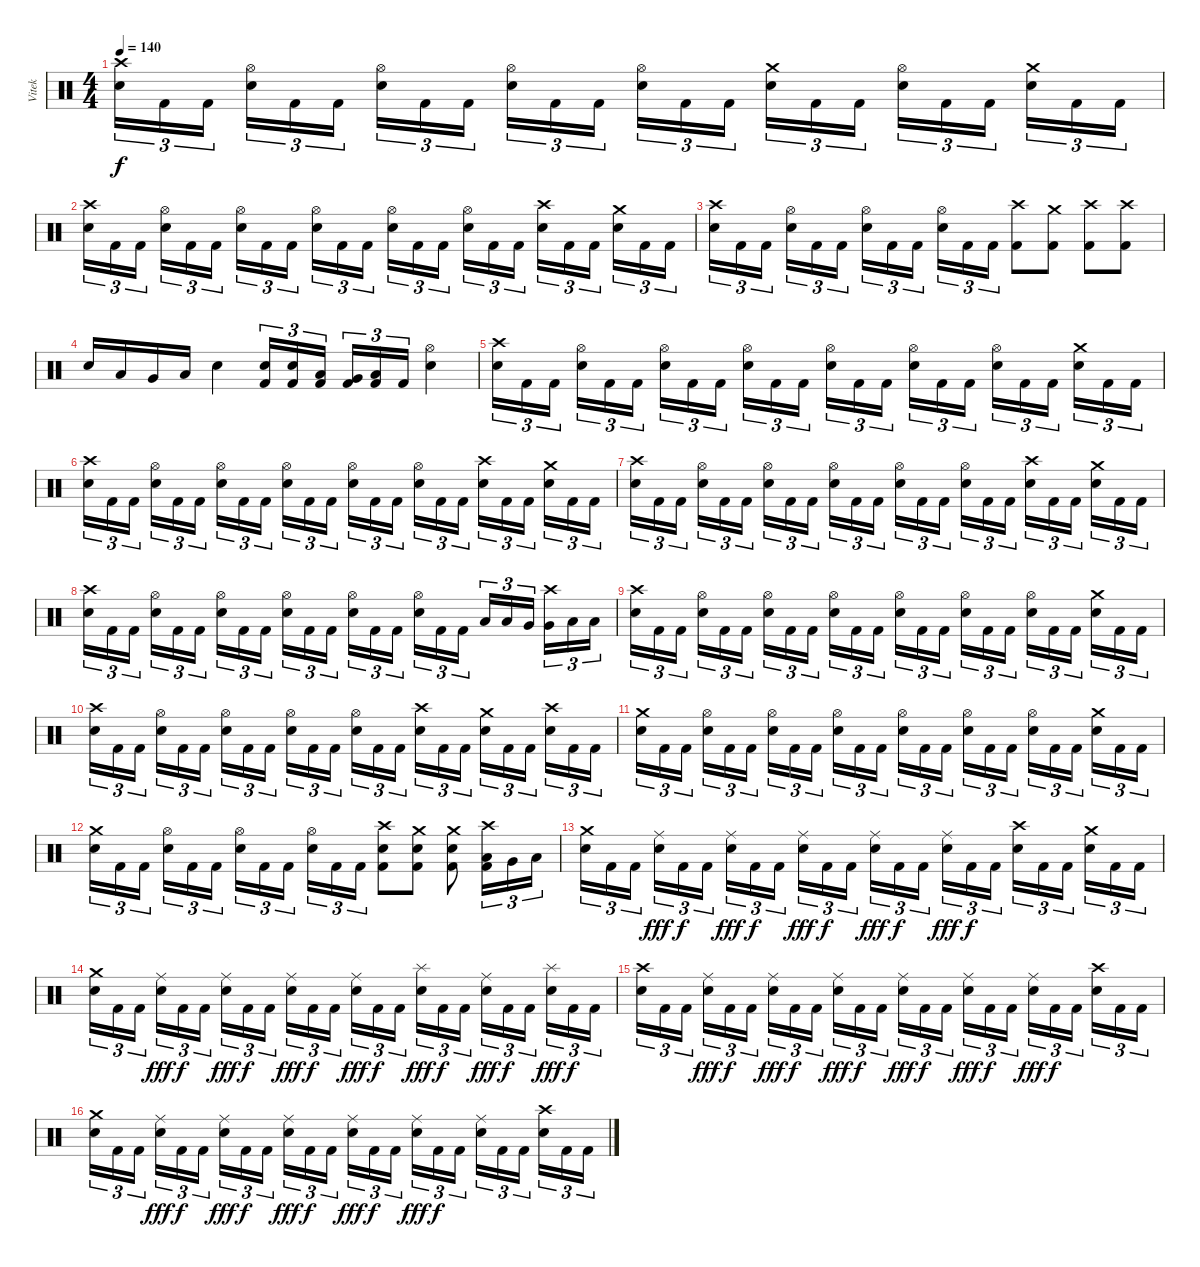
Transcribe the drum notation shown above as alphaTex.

\track ("Vitek" "Vitek") {instrument percussion}
\staff {score}
\articulation defaults
\ts (4 4)
\tempo 140
\clef neutral
\ks c
("Crash high (hit)" "Electric Snare (hit)").16{tu (3 2) dy f} "Kick (hit) 2".16{tu (3 2)} "Kick (hit) 2".16{tu (3 2)} ("Hi-Hat (open)" "Electric Snare (hit)").16{tu (3 2)} "Kick (hit) 2".16{tu (3 2)} "Kick (hit) 2".16{tu (3 2)} ("Hi-Hat (open)" "Electric Snare (hit)").16{tu (3 2)} "Kick (hit) 2".16{tu (3 2)} "Kick (hit) 2".16{tu (3 2)} ("Hi-Hat (open)" "Electric Snare (hit)").16{tu (3 2)} "Kick (hit) 2".16{tu (3 2)} "Kick (hit) 2".16{tu (3 2)} ("Hi-Hat (open)" "Electric Snare (hit)").16{tu (3 2)} "Kick (hit) 2".16{tu (3 2)} "Kick (hit) 2".16{tu (3 2)} ("Crash medium (hit)" "Electric Snare (hit)").16{tu (3 2)} "Kick (hit) 2".16{tu (3 2)} "Kick (hit) 2".16{tu (3 2)} ("Hi-Hat (open)" "Electric Snare (hit)").16{tu (3 2)} "Kick (hit) 2".16{tu (3 2)} "Kick (hit) 2".16{tu (3 2)} ("Crash medium (hit)" "Electric Snare (hit)").16{tu (3 2)} "Kick (hit) 2".16{tu (3 2)} "Kick (hit) 2".16{tu (3 2)} |
("Crash high (hit)" "Electric Snare (hit)").16{tu (3 2)} "Kick (hit) 2".16{tu (3 2)} "Kick (hit) 2".16{tu (3 2)} ("Hi-Hat (open)" "Electric Snare (hit)").16{tu (3 2)} "Kick (hit) 2".16{tu (3 2)} "Kick (hit) 2".16{tu (3 2)} ("Hi-Hat (open)" "Electric Snare (hit)").16{tu (3 2)} "Kick (hit) 2".16{tu (3 2)} "Kick (hit) 2".16{tu (3 2)} ("Hi-Hat (open)" "Electric Snare (hit)").16{tu (3 2)} "Kick (hit) 2".16{tu (3 2)} "Kick (hit) 2".16{tu (3 2)} ("Hi-Hat (open)" "Electric Snare (hit)").16{tu (3 2)} "Kick (hit) 2".16{tu (3 2)} "Kick (hit) 2".16{tu (3 2)} ("Hi-Hat (open)" "Electric Snare (hit)").16{tu (3 2)} "Kick (hit) 2".16{tu (3 2)} "Kick (hit) 2".16{tu (3 2)} ("Crash high (hit)" "Electric Snare (hit)").16{tu (3 2)} "Kick (hit) 2".16{tu (3 2)} "Kick (hit) 2".16{tu (3 2)} ("Crash medium (hit)" "Electric Snare (hit)").16{tu (3 2)} "Kick (hit) 2".16{tu (3 2)} "Kick (hit) 2".16{tu (3 2)} |
("Crash high (hit)" "Electric Snare (hit)").16{tu (3 2)} "Kick (hit) 2".16{tu (3 2)} "Kick (hit) 2".16{tu (3 2)} ("Hi-Hat (open)" "Electric Snare (hit)").16{tu (3 2)} "Kick (hit) 2".16{tu (3 2)} "Kick (hit) 2".16{tu (3 2)} ("Hi-Hat (open)" "Electric Snare (hit)").16{tu (3 2)} "Kick (hit) 2".16{tu (3 2)} "Kick (hit) 2".16{tu (3 2)} ("Hi-Hat (open)" "Electric Snare (hit)").16{tu (3 2)} "Kick (hit) 2".16{tu (3 2)} "Kick (hit) 2".16{tu (3 2)} ("Crash high (hit)" "Kick (hit) 2").8 ("Crash medium (hit)" "Kick (hit) 2").8 ("Crash high (hit)" "Kick (hit) 2").8 ("Crash high (hit)" "Kick (hit) 2").8 |
"Electric Snare (hit)".16 "Low Tom (hit)".16 "Very Low Tom (hit)".16 "Low Floor Tom (hit)".16 "Electric Snare (hit)".4 ("Electric Snare (hit)" "Kick (hit) 2").16{tu (3 2)} ("Electric Snare (hit)" "Kick (hit) 2").16{tu (3 2)} ("Low Tom (hit)" "Kick (hit) 2").16{tu (3 2)} ("Very Low Tom (hit)" "Kick (hit) 2").16{tu (3 2)} ("Low Floor Tom (hit)" "Kick (hit) 2").16{tu (3 2)} "Kick (hit) 2".16{tu (3 2)} ("Hi-Hat (open)" "Electric Snare (hit)").4 |
("Crash high (hit)" "Electric Snare (hit)").16{tu (3 2)} "Kick (hit) 2".16{tu (3 2)} "Kick (hit) 2".16{tu (3 2)} ("Hi-Hat (open)" "Electric Snare (hit)").16{tu (3 2)} "Kick (hit) 2".16{tu (3 2)} "Kick (hit) 2".16{tu (3 2)} ("Hi-Hat (open)" "Electric Snare (hit)").16{tu (3 2)} "Kick (hit) 2".16{tu (3 2)} "Kick (hit) 2".16{tu (3 2)} ("Hi-Hat (open)" "Electric Snare (hit)").16{tu (3 2)} "Kick (hit) 2".16{tu (3 2)} "Kick (hit) 2".16{tu (3 2)} ("Hi-Hat (open)" "Electric Snare (hit)").16{tu (3 2)} "Kick (hit) 2".16{tu (3 2)} "Kick (hit) 2".16{tu (3 2)} ("Hi-Hat (open)" "Electric Snare (hit)").16{tu (3 2)} "Kick (hit) 2".16{tu (3 2)} "Kick (hit) 2".16{tu (3 2)} ("Hi-Hat (open)" "Electric Snare (hit)").16{tu (3 2)} "Kick (hit) 2".16{tu (3 2)} "Kick (hit) 2".16{tu (3 2)} ("Crash medium (hit)" "Electric Snare (hit)").16{tu (3 2)} "Kick (hit) 2".16{tu (3 2)} "Kick (hit) 2".16{tu (3 2)} |
("Crash high (hit)" "Electric Snare (hit)").16{tu (3 2)} "Kick (hit) 2".16{tu (3 2)} "Kick (hit) 2".16{tu (3 2)} ("Hi-Hat (open)" "Electric Snare (hit)").16{tu (3 2)} "Kick (hit) 2".16{tu (3 2)} "Kick (hit) 2".16{tu (3 2)} ("Hi-Hat (open)" "Electric Snare (hit)").16{tu (3 2)} "Kick (hit) 2".16{tu (3 2)} "Kick (hit) 2".16{tu (3 2)} ("Hi-Hat (open)" "Electric Snare (hit)").16{tu (3 2)} "Kick (hit) 2".16{tu (3 2)} "Kick (hit) 2".16{tu (3 2)} ("Hi-Hat (open)" "Electric Snare (hit)").16{tu (3 2)} "Kick (hit) 2".16{tu (3 2)} "Kick (hit) 2".16{tu (3 2)} ("Hi-Hat (open)" "Electric Snare (hit)").16{tu (3 2)} "Kick (hit) 2".16{tu (3 2)} "Kick (hit) 2".16{tu (3 2)} ("Crash high (hit)" "Electric Snare (hit)").16{tu (3 2)} "Kick (hit) 2".16{tu (3 2)} "Kick (hit) 2".16{tu (3 2)} ("Crash medium (hit)" "Electric Snare (hit)").16{tu (3 2)} "Kick (hit) 2".16{tu (3 2)} "Kick (hit) 2".16{tu (3 2)} |
("Crash high (hit)" "Electric Snare (hit)").16{tu (3 2)} "Kick (hit) 2".16{tu (3 2)} "Kick (hit) 2".16{tu (3 2)} ("Hi-Hat (open)" "Electric Snare (hit)").16{tu (3 2)} "Kick (hit) 2".16{tu (3 2)} "Kick (hit) 2".16{tu (3 2)} ("Hi-Hat (open)" "Electric Snare (hit)").16{tu (3 2)} "Kick (hit) 2".16{tu (3 2)} "Kick (hit) 2".16{tu (3 2)} ("Hi-Hat (open)" "Electric Snare (hit)").16{tu (3 2)} "Kick (hit) 2".16{tu (3 2)} "Kick (hit) 2".16{tu (3 2)} ("Hi-Hat (open)" "Electric Snare (hit)").16{tu (3 2)} "Kick (hit) 2".16{tu (3 2)} "Kick (hit) 2".16{tu (3 2)} ("Hi-Hat (open)" "Electric Snare (hit)").16{tu (3 2)} "Kick (hit) 2".16{tu (3 2)} "Kick (hit) 2".16{tu (3 2)} ("Crash high (hit)" "Electric Snare (hit)").16{tu (3 2)} "Kick (hit) 2".16{tu (3 2)} "Kick (hit) 2".16{tu (3 2)} ("Crash medium (hit)" "Electric Snare (hit)").16{tu (3 2)} "Kick (hit) 2".16{tu (3 2)} "Kick (hit) 2".16{tu (3 2)} |
("Crash high (hit)" "Electric Snare (hit)").16{tu (3 2)} "Kick (hit) 2".16{tu (3 2)} "Kick (hit) 2".16{tu (3 2)} ("Hi-Hat (open)" "Electric Snare (hit)").16{tu (3 2)} "Kick (hit) 2".16{tu (3 2)} "Kick (hit) 2".16{tu (3 2)} ("Hi-Hat (open)" "Electric Snare (hit)").16{tu (3 2)} "Kick (hit) 2".16{tu (3 2)} "Kick (hit) 2".16{tu (3 2)} ("Hi-Hat (open)" "Electric Snare (hit)").16{tu (3 2)} "Kick (hit) 2".16{tu (3 2)} "Kick (hit) 2".16{tu (3 2)} ("Hi-Hat (open)" "Electric Snare (hit)").16{tu (3 2)} "Kick (hit) 2".16{tu (3 2)} "Kick (hit) 2".16{tu (3 2)} ("Hi-Hat (open)" "Electric Snare (hit)").16{tu (3 2)} "Kick (hit) 2".16{tu (3 2)} "Kick (hit) 2".16{tu (3 2)} "Low Tom (hit)".16{tu (3 2)} "Low Tom (hit)".16{tu (3 2)} "Very Low Tom (hit)".16{tu (3 2)} ("Crash high (hit)" "Very Low Tom (hit)").16{tu (3 2)} "Low Floor Tom (hit)".16{tu (3 2)} "Low Floor Tom (hit)".16{tu (3 2)} |
("Crash high (hit)" "Electric Snare (hit)").16{tu (3 2)} "Kick (hit) 2".16{tu (3 2)} "Kick (hit) 2".16{tu (3 2)} ("Hi-Hat (open)" "Electric Snare (hit)").16{tu (3 2)} "Kick (hit) 2".16{tu (3 2)} "Kick (hit) 2".16{tu (3 2)} ("Hi-Hat (open)" "Electric Snare (hit)").16{tu (3 2)} "Kick (hit) 2".16{tu (3 2)} "Kick (hit) 2".16{tu (3 2)} ("Hi-Hat (open)" "Electric Snare (hit)").16{tu (3 2)} "Kick (hit) 2".16{tu (3 2)} "Kick (hit) 2".16{tu (3 2)} ("Hi-Hat (open)" "Electric Snare (hit)").16{tu (3 2)} "Kick (hit) 2".16{tu (3 2)} "Kick (hit) 2".16{tu (3 2)} ("Hi-Hat (open)" "Electric Snare (hit)").16{tu (3 2)} "Kick (hit) 2".16{tu (3 2)} "Kick (hit) 2".16{tu (3 2)} ("Hi-Hat (open)" "Electric Snare (hit)").16{tu (3 2)} "Kick (hit) 2".16{tu (3 2)} "Kick (hit) 2".16{tu (3 2)} ("Crash medium (hit)" "Electric Snare (hit)").16{tu (3 2)} "Kick (hit) 2".16{tu (3 2)} "Kick (hit) 2".16{tu (3 2)} |
("Crash high (hit)" "Electric Snare (hit)").16{tu (3 2)} "Kick (hit) 2".16{tu (3 2)} "Kick (hit) 2".16{tu (3 2)} ("Hi-Hat (open)" "Electric Snare (hit)").16{tu (3 2)} "Kick (hit) 2".16{tu (3 2)} "Kick (hit) 2".16{tu (3 2)} ("Hi-Hat (open)" "Electric Snare (hit)").16{tu (3 2)} "Kick (hit) 2".16{tu (3 2)} "Kick (hit) 2".16{tu (3 2)} ("Hi-Hat (open)" "Electric Snare (hit)").16{tu (3 2)} "Kick (hit) 2".16{tu (3 2)} "Kick (hit) 2".16{tu (3 2)} ("Hi-Hat (open)" "Electric Snare (hit)").16{tu (3 2)} "Kick (hit) 2".16{tu (3 2)} "Kick (hit) 2".16{tu (3 2)} ("Crash high (hit)" "Electric Snare (hit)").16{tu (3 2)} "Kick (hit) 2".16{tu (3 2)} "Kick (hit) 2".16{tu (3 2)} ("Crash medium (hit)" "Electric Snare (hit)").16{tu (3 2)} "Kick (hit) 2".16{tu (3 2)} "Kick (hit) 2".16{tu (3 2)} ("Crash high (hit)" "Electric Snare (hit)").16{tu (3 2)} "Kick (hit) 2".16{tu (3 2)} "Kick (hit) 2".16{tu (3 2)} |
("Crash medium (hit)" "Electric Snare (hit)").16{tu (3 2)} "Kick (hit) 2".16{tu (3 2)} "Kick (hit) 2".16{tu (3 2)} ("Hi-Hat (open)" "Electric Snare (hit)").16{tu (3 2)} "Kick (hit) 2".16{tu (3 2)} "Kick (hit) 2".16{tu (3 2)} ("Hi-Hat (open)" "Electric Snare (hit)").16{tu (3 2)} "Kick (hit) 2".16{tu (3 2)} "Kick (hit) 2".16{tu (3 2)} ("Hi-Hat (open)" "Electric Snare (hit)").16{tu (3 2)} "Kick (hit) 2".16{tu (3 2)} "Kick (hit) 2".16{tu (3 2)} ("Hi-Hat (open)" "Electric Snare (hit)").16{tu (3 2)} "Kick (hit) 2".16{tu (3 2)} "Kick (hit) 2".16{tu (3 2)} ("Hi-Hat (open)" "Electric Snare (hit)").16{tu (3 2)} "Kick (hit) 2".16{tu (3 2)} "Kick (hit) 2".16{tu (3 2)} ("Hi-Hat (open)" "Electric Snare (hit)").16{tu (3 2)} "Kick (hit) 2".16{tu (3 2)} "Kick (hit) 2".16{tu (3 2)} ("Crash medium (hit)" "Electric Snare (hit)").16{tu (3 2)} "Kick (hit) 2".16{tu (3 2)} "Kick (hit) 2".16{tu (3 2)} |
("Crash medium (hit)" "Electric Snare (hit)").16{tu (3 2)} "Kick (hit) 2".16{tu (3 2)} "Kick (hit) 2".16{tu (3 2)} ("Hi-Hat (open)" "Electric Snare (hit)").16{tu (3 2)} "Kick (hit) 2".16{tu (3 2)} "Kick (hit) 2".16{tu (3 2)} ("Hi-Hat (open)" "Electric Snare (hit)").16{tu (3 2)} "Kick (hit) 2".16{tu (3 2)} "Kick (hit) 2".16{tu (3 2)} ("Hi-Hat (open)" "Electric Snare (hit)").16{tu (3 2)} "Kick (hit) 2".16{tu (3 2)} "Kick (hit) 2".16{tu (3 2)} ("Crash high (hit)" "Electric Snare (hit)" "Kick (hit) 2").8 ("Crash medium (hit)" "Electric Snare (hit)" "Kick (hit) 2").8 ("Crash medium (hit)" "Electric Snare (hit)" "Kick (hit) 2").8 ("Crash high (hit)" "Low Tom (hit)" "Kick (hit) 2").16{tu (3 2)} "Very Low Tom (hit)".16{tu (3 2)} "Low Floor Tom (hit)".16{tu (3 2)} |
("Crash medium (hit)" "Electric Snare (hit)").16{tu (3 2)} "Kick (hit) 2".16{tu (3 2)} "Kick (hit) 2".16{tu (3 2)} ("Ride (middle)" "Electric Snare (hit)").16{tu (3 2) dy fff} "Kick (hit) 2".16{tu (3 2) dy f} "Kick (hit) 2".16{tu (3 2)} ("Ride (middle)" "Electric Snare (hit)").16{tu (3 2) dy fff} "Kick (hit) 2".16{tu (3 2) dy f} "Kick (hit) 2".16{tu (3 2)} ("Ride (middle)" "Electric Snare (hit)").16{tu (3 2) dy fff} "Kick (hit) 2".16{tu (3 2) dy f} "Kick (hit) 2".16{tu (3 2)} ("Ride (middle)" "Electric Snare (hit)").16{tu (3 2) dy fff} "Kick (hit) 2".16{tu (3 2) dy f} "Kick (hit) 2".16{tu (3 2)} ("Ride (middle)" "Electric Snare (hit)").16{tu (3 2) dy fff} "Kick (hit) 2".16{tu (3 2) dy f} "Kick (hit) 2".16{tu (3 2)} ("Crash high (hit)" "Electric Snare (hit)").16{tu (3 2)} "Kick (hit) 2".16{tu (3 2)} "Kick (hit) 2".16{tu (3 2)} ("Crash medium (hit)" "Electric Snare (hit)").16{tu (3 2)} "Kick (hit) 2".16{tu (3 2)} "Kick (hit) 2".16{tu (3 2)} |
("Crash medium (hit)" "Electric Snare (hit)").16{tu (3 2)} "Kick (hit) 2".16{tu (3 2)} "Kick (hit) 2".16{tu (3 2)} ("Ride (middle)" "Electric Snare (hit)").16{tu (3 2) dy fff} "Kick (hit) 2".16{tu (3 2) dy f} "Kick (hit) 2".16{tu (3 2)} ("Ride (middle)" "Electric Snare (hit)").16{tu (3 2) dy fff} "Kick (hit) 2".16{tu (3 2) dy f} "Kick (hit) 2".16{tu (3 2)} ("Ride (middle)" "Electric Snare (hit)").16{tu (3 2) dy fff} "Kick (hit) 2".16{tu (3 2) dy f} "Kick (hit) 2".16{tu (3 2)} ("Ride (middle)" "Electric Snare (hit)").16{tu (3 2) dy fff} "Kick (hit) 2".16{tu (3 2) dy f} "Kick (hit) 2".16{tu (3 2)} ("Splash (hit)" "Electric Snare (hit)").16{tu (3 2) dy fff} "Kick (hit) 2".16{tu (3 2) dy f} "Kick (hit) 2".16{tu (3 2)} ("Ride (middle)" "Electric Snare (hit)").16{tu (3 2) dy fff} "Kick (hit) 2".16{tu (3 2) dy f} "Kick (hit) 2".16{tu (3 2)} ("Splash (hit)" "Electric Snare (hit)").16{tu (3 2) dy fff} "Kick (hit) 2".16{tu (3 2) dy f} "Kick (hit) 2".16{tu (3 2)} |
("Crash high (hit)" "Electric Snare (hit)").16{tu (3 2)} "Kick (hit) 2".16{tu (3 2)} "Kick (hit) 2".16{tu (3 2)} ("Ride (middle)" "Electric Snare (hit)").16{tu (3 2) dy fff} "Kick (hit) 2".16{tu (3 2) dy f} "Kick (hit) 2".16{tu (3 2)} ("Ride (middle)" "Electric Snare (hit)").16{tu (3 2) dy fff} "Kick (hit) 2".16{tu (3 2) dy f} "Kick (hit) 2".16{tu (3 2)} ("Ride (middle)" "Electric Snare (hit)").16{tu (3 2) dy fff} "Kick (hit) 2".16{tu (3 2) dy f} "Kick (hit) 2".16{tu (3 2)} ("Ride (middle)" "Electric Snare (hit)").16{tu (3 2) dy fff} "Kick (hit) 2".16{tu (3 2) dy f} "Kick (hit) 2".16{tu (3 2)} ("Ride (middle)" "Electric Snare (hit)").16{tu (3 2) dy fff} "Kick (hit) 2".16{tu (3 2) dy f} "Kick (hit) 2".16{tu (3 2)} ("Ride (middle)" "Electric Snare (hit)").16{tu (3 2) dy fff} "Kick (hit) 2".16{tu (3 2) dy f} "Kick (hit) 2".16{tu (3 2)} ("Crash high (hit)" "Electric Snare (hit)").16{tu (3 2)} "Kick (hit) 2".16{tu (3 2)} "Kick (hit) 2".16{tu (3 2)} |
("Crash medium (hit)" "Electric Snare (hit)").16{tu (3 2)} "Kick (hit) 2".16{tu (3 2)} "Kick (hit) 2".16{tu (3 2)} ("Ride (middle)" "Electric Snare (hit)").16{tu (3 2) dy fff} "Kick (hit) 2".16{tu (3 2) dy f} "Kick (hit) 2".16{tu (3 2)} ("Ride (middle)" "Electric Snare (hit)").16{tu (3 2) dy fff} "Kick (hit) 2".16{tu (3 2) dy f} "Kick (hit) 2".16{tu (3 2)} ("Ride (middle)" "Electric Snare (hit)").16{tu (3 2) dy fff} "Kick (hit) 2".16{tu (3 2) dy f} "Kick (hit) 2".16{tu (3 2)} ("Ride (middle)" "Electric Snare (hit)").16{tu (3 2) dy fff} "Kick (hit) 2".16{tu (3 2) dy f} "Kick (hit) 2".16{tu (3 2)} ("Ride (middle)" "Electric Snare (hit)").16{tu (3 2) dy fff} "Kick (hit) 2".16{tu (3 2) dy f} "Kick (hit) 2".16{tu (3 2)} ("Ride (middle)" "Electric Snare (hit)").16{tu (3 2)} "Kick (hit) 2".16{tu (3 2)} "Kick (hit) 2".16{tu (3 2)} ("Crash high (hit)" "Electric Snare (hit)").16{tu (3 2)} "Kick (hit) 2".16{tu (3 2)} "Kick (hit) 2".16{tu (3 2)}
